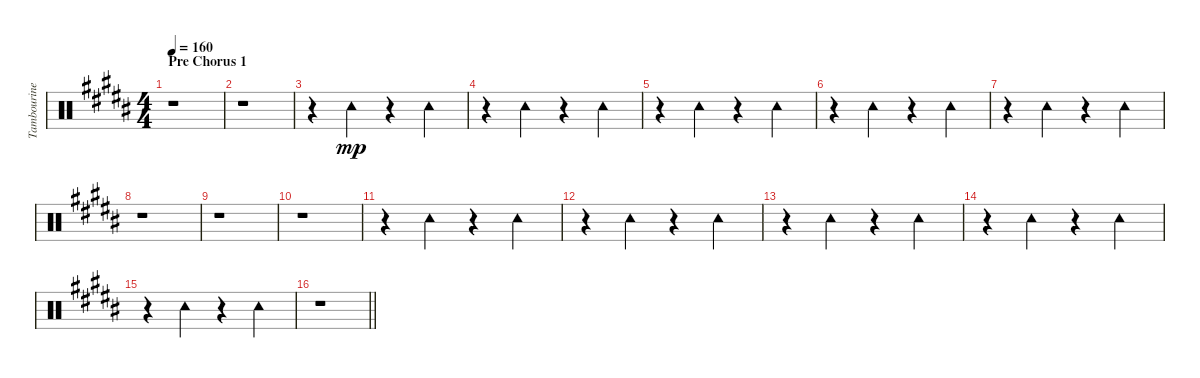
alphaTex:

\track ("Tambourine" "Tambourine") {instrument percussion}
\staff {score}
\articulation defaults
\ts (4 4)
\section ("" "Pre Chorus 1")
\tempo 160
\clef neutral
\ks b
r.1{dy mp} |
r.1 |
r.4 "Tambourine (hit)".4 r.4 "Tambourine (hit)".4 |
r.4 "Tambourine (hit)".4 r.4 "Tambourine (hit)".4 |
r.4 "Tambourine (hit)".4 r.4 "Tambourine (hit)".4 |
r.4 "Tambourine (hit)".4 r.4 "Tambourine (hit)".4 |
r.4 "Tambourine (hit)".4 r.4 "Tambourine (hit)".4 |
r.1 |
r.1 |
r.1 |
r.4 "Tambourine (hit)".4 r.4 "Tambourine (hit)".4 |
r.4 "Tambourine (hit)".4 r.4 "Tambourine (hit)".4 |
r.4 "Tambourine (hit)".4 r.4 "Tambourine (hit)".4 |
r.4 "Tambourine (hit)".4 r.4 "Tambourine (hit)".4 |
r.4 "Tambourine (hit)".4 r.4 "Tambourine (hit)".4 |
\barLineRight lightlight
r.1
